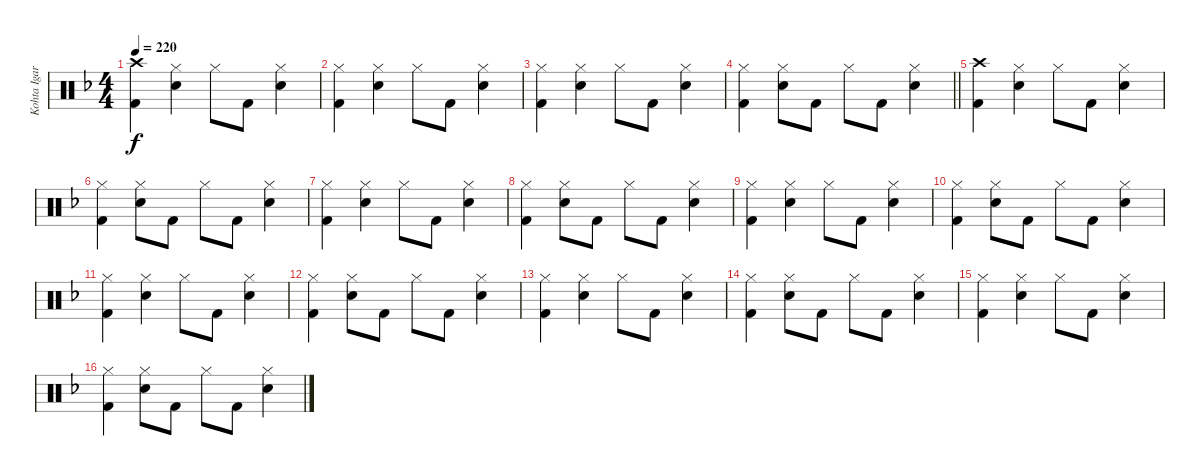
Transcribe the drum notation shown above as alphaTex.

\track ("Kohta Igarashi" "Kohta Igar") {instrument percussion}
\staff {score}
\articulation defaults
\ts (4 4)
\tempo 220
\clef neutral
\ks f
("Crash high (hit)" "Kick (hit) 2").4{dy f} ("Hi-Hat (closed)" "Electric Snare (hit)").4 "Hi-Hat (closed)".8 "Kick (hit) 2".8 ("Hi-Hat (closed)" "Electric Snare (hit)").4 |
("Hi-Hat (closed)" "Kick (hit) 2").4 ("Hi-Hat (closed)" "Electric Snare (hit)").4 "Hi-Hat (closed)".8 "Kick (hit) 2".8 ("Hi-Hat (closed)" "Electric Snare (hit)").4 |
("Hi-Hat (closed)" "Kick (hit) 2").4 ("Hi-Hat (closed)" "Electric Snare (hit)").4 "Hi-Hat (closed)".8 "Kick (hit) 2".8 ("Hi-Hat (closed)" "Electric Snare (hit)").4 |
\barLineRight lightlight
("Hi-Hat (closed)" "Kick (hit) 2").4 ("Hi-Hat (closed)" "Electric Snare (hit)").8 "Kick (hit) 2".8 "Hi-Hat (closed)".8 "Kick (hit) 2".8 ("Hi-Hat (closed)" "Electric Snare (hit)").4 |
("Crash high (hit)" "Kick (hit) 2").4 ("Hi-Hat (closed)" "Electric Snare (hit)").4 "Hi-Hat (closed)".8 "Kick (hit) 2".8 ("Hi-Hat (closed)" "Electric Snare (hit)").4 |
("Hi-Hat (closed)" "Kick (hit) 2").4 ("Hi-Hat (closed)" "Electric Snare (hit)").8 "Kick (hit) 2".8 "Hi-Hat (closed)".8 "Kick (hit) 2".8 ("Hi-Hat (closed)" "Electric Snare (hit)").4 |
("Hi-Hat (closed)" "Kick (hit) 2").4 ("Hi-Hat (closed)" "Electric Snare (hit)").4 "Hi-Hat (closed)".8 "Kick (hit) 2".8 ("Hi-Hat (closed)" "Electric Snare (hit)").4 |
("Hi-Hat (closed)" "Kick (hit) 2").4 ("Hi-Hat (closed)" "Electric Snare (hit)").8 "Kick (hit) 2".8 "Hi-Hat (closed)".8 "Kick (hit) 2".8 ("Hi-Hat (closed)" "Electric Snare (hit)").4 |
("Hi-Hat (closed)" "Kick (hit) 2").4 ("Hi-Hat (closed)" "Electric Snare (hit)").4 "Hi-Hat (closed)".8 "Kick (hit) 2".8 ("Hi-Hat (closed)" "Electric Snare (hit)").4 |
("Hi-Hat (closed)" "Kick (hit) 2").4 ("Hi-Hat (closed)" "Electric Snare (hit)").8 "Kick (hit) 2".8 "Hi-Hat (closed)".8 "Kick (hit) 2".8 ("Hi-Hat (closed)" "Electric Snare (hit)").4 |
("Hi-Hat (closed)" "Kick (hit) 2").4 ("Hi-Hat (closed)" "Electric Snare (hit)").4 "Hi-Hat (closed)".8 "Kick (hit) 2".8 ("Hi-Hat (closed)" "Electric Snare (hit)").4 |
("Hi-Hat (closed)" "Kick (hit) 2").4 ("Hi-Hat (closed)" "Electric Snare (hit)").8 "Kick (hit) 2".8 "Hi-Hat (closed)".8 "Kick (hit) 2".8 ("Hi-Hat (closed)" "Electric Snare (hit)").4 |
("Hi-Hat (closed)" "Kick (hit) 2").4 ("Hi-Hat (closed)" "Electric Snare (hit)").4 "Hi-Hat (closed)".8 "Kick (hit) 2".8 ("Hi-Hat (closed)" "Electric Snare (hit)").4 |
("Hi-Hat (closed)" "Kick (hit) 2").4 ("Hi-Hat (closed)" "Electric Snare (hit)").8 "Kick (hit) 2".8 "Hi-Hat (closed)".8 "Kick (hit) 2".8 ("Hi-Hat (closed)" "Electric Snare (hit)").4 |
("Hi-Hat (closed)" "Kick (hit) 2").4 ("Hi-Hat (closed)" "Electric Snare (hit)").4 "Hi-Hat (closed)".8 "Kick (hit) 2".8 ("Hi-Hat (closed)" "Electric Snare (hit)").4 |
("Hi-Hat (closed)" "Kick (hit) 2").4 ("Hi-Hat (closed)" "Electric Snare (hit)").8 "Kick (hit) 2".8 "Hi-Hat (closed)".8 "Kick (hit) 2".8 ("Hi-Hat (closed)" "Electric Snare (hit)").4
